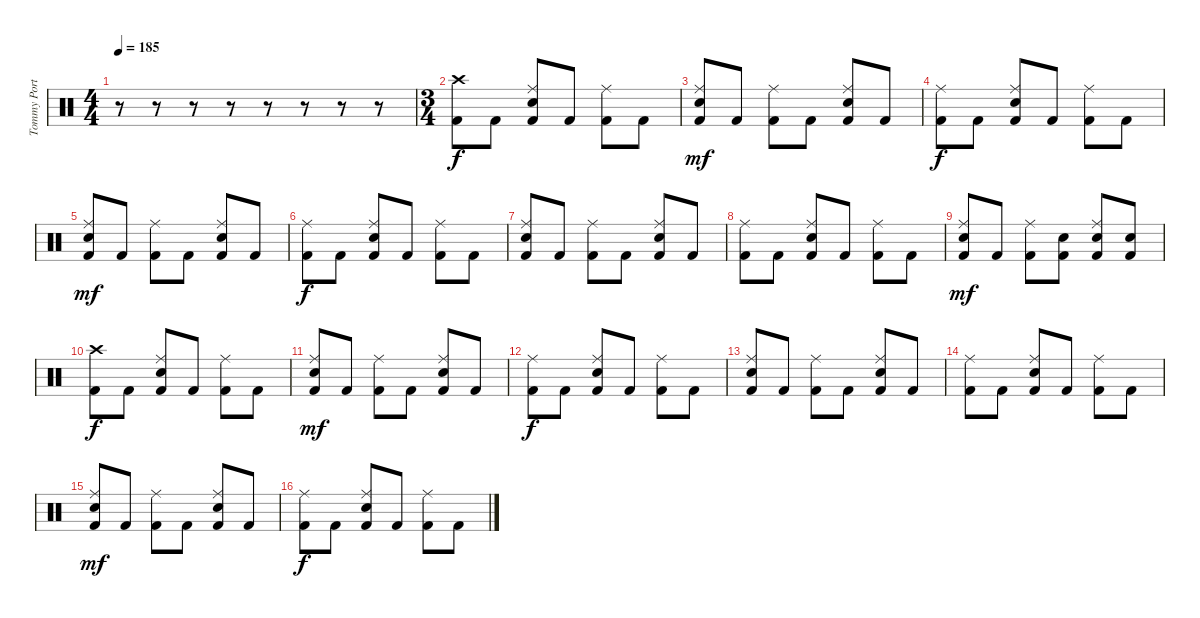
\track ("Tommy Portino" "Tommy Port") {instrument percussion}
\staff {score}
\articulation defaults
\ts (4 4)
\tempo 185
\clef neutral
\ks c
r.8{dy f} r.8 r.8 r.8 r.8 r.8 r.8 r.8 |
\ts (3 4)
("Crash high (hit)" "Kick (hit) 2").8 "Kick (hit) 2".8 ("Ride (middle)" "Snare (hit) 2" "Kick (hit) 2").8 "Kick (hit) 2".8 ("Ride (middle)" "Kick (hit) 2").8 "Kick (hit) 2".8 |
("Ride (middle)" "Snare (hit) 2" "Kick (hit) 2").8{dy mf} "Kick (hit) 2".8 ("Ride (middle)" "Kick (hit) 2").8 "Kick (hit) 2".8 ("Ride (middle)" "Snare (hit) 2" "Kick (hit) 2").8 "Kick (hit) 2".8 |
("Ride (middle)" "Kick (hit) 2").8{dy f} "Kick (hit) 2".8 ("Ride (middle)" "Snare (hit) 2" "Kick (hit) 2").8 "Kick (hit) 2".8 ("Ride (middle)" "Kick (hit) 2").8 "Kick (hit) 2".8 |
("Ride (middle)" "Snare (hit) 2" "Kick (hit) 2").8{dy mf} "Kick (hit) 2".8 ("Ride (middle)" "Kick (hit) 2").8 "Kick (hit) 2".8 ("Ride (middle)" "Snare (hit) 2" "Kick (hit) 2").8 "Kick (hit) 2".8 |
("Ride (middle)" "Kick (hit) 2").8{dy f} "Kick (hit) 2".8 ("Ride (middle)" "Snare (hit) 2" "Kick (hit) 2").8 "Kick (hit) 2".8 ("Ride (middle)" "Kick (hit) 2").8 "Kick (hit) 2".8 |
("Ride (middle)" "Snare (hit) 2" "Kick (hit) 2").8 "Kick (hit) 2".8 ("Ride (middle)" "Kick (hit) 2").8 "Kick (hit) 2".8 ("Ride (middle)" "Snare (hit) 2" "Kick (hit) 2").8 "Kick (hit) 2".8 |
("Ride (middle)" "Kick (hit) 2").8 "Kick (hit) 2".8 ("Ride (middle)" "Snare (hit) 2" "Kick (hit) 2").8 "Kick (hit) 2".8 ("Ride (middle)" "Kick (hit) 2").8 "Kick (hit) 2".8 |
("Ride (middle)" "Snare (hit) 2" "Kick (hit) 2").8{dy mf} "Kick (hit) 2".8 ("Ride (middle)" "Kick (hit) 2").8 ("Snare (hit) 2" "Kick (hit) 2").8 ("Ride (middle)" "Snare (hit) 2" "Kick (hit) 2").8 ("Snare (hit) 2" "Kick (hit) 2").8 |
("Crash high (hit)" "Kick (hit) 2").8{dy f} "Kick (hit) 2".8 ("Ride (middle)" "Snare (hit) 2" "Kick (hit) 2").8 "Kick (hit) 2".8 ("Ride (middle)" "Kick (hit) 2").8 "Kick (hit) 2".8 |
("Ride (middle)" "Snare (hit) 2" "Kick (hit) 2").8{dy mf} "Kick (hit) 2".8 ("Ride (middle)" "Kick (hit) 2").8 "Kick (hit) 2".8 ("Ride (middle)" "Snare (hit) 2" "Kick (hit) 2").8 "Kick (hit) 2".8 |
("Ride (middle)" "Kick (hit) 2").8{dy f} "Kick (hit) 2".8 ("Ride (middle)" "Snare (hit) 2" "Kick (hit) 2").8 "Kick (hit) 2".8 ("Ride (middle)" "Kick (hit) 2").8 "Kick (hit) 2".8 |
("Ride (middle)" "Snare (hit) 2" "Kick (hit) 2").8 "Kick (hit) 2".8 ("Ride (middle)" "Kick (hit) 2").8 "Kick (hit) 2".8 ("Ride (middle)" "Snare (hit) 2" "Kick (hit) 2").8 "Kick (hit) 2".8 |
("Ride (middle)" "Kick (hit) 2").8 "Kick (hit) 2".8 ("Ride (middle)" "Snare (hit) 2" "Kick (hit) 2").8 "Kick (hit) 2".8 ("Ride (middle)" "Kick (hit) 2").8 "Kick (hit) 2".8 |
("Ride (middle)" "Snare (hit) 2" "Kick (hit) 2").8{dy mf} "Kick (hit) 2".8 ("Ride (middle)" "Kick (hit) 2").8 "Kick (hit) 2".8 ("Ride (middle)" "Snare (hit) 2" "Kick (hit) 2").8 "Kick (hit) 2".8 |
("Ride (middle)" "Kick (hit) 2").8{dy f} "Kick (hit) 2".8 ("Ride (middle)" "Snare (hit) 2" "Kick (hit) 2").8 "Kick (hit) 2".8 ("Ride (middle)" "Kick (hit) 2").8 "Kick (hit) 2".8
